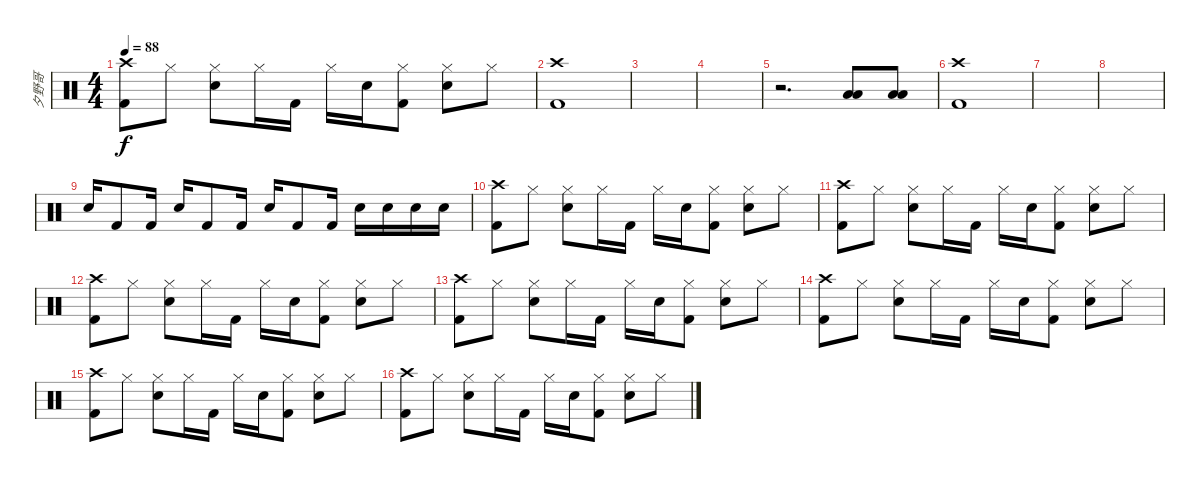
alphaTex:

\track ("夕野哥" "夕野哥") {instrument percussion}
\staff {score}
\articulation defaults
\ts (4 4)
\tempo 88
\clef neutral
\ks c
("Crash high (hit)" "Kick (hit) 2").8{dy f} "Hi-Hat (closed)".8 ("Hi-Hat (closed)" "Electric Snare (hit)").8 "Hi-Hat (closed)".16 "Kick (hit) 2".16 "Hi-Hat (closed)".16 "Electric Snare (hit)".16 ("Hi-Hat (closed)" "Kick (hit) 2").8 ("Hi-Hat (closed)" "Electric Snare (hit)").8 "Hi-Hat (closed)".8 |
("Crash high (hit)" "Kick (hit) 2").1 |
|
|
r.2{d} ("Low Tom (hit)" "Low Floor Tom (hit)").8 ("Low Tom (hit)" "Low Floor Tom (hit)").8 |
("Crash high (hit)" "Kick (hit) 2").1 |
|
|
"Electric Snare (hit)".16 "Kick (hit) 2".8 "Kick (hit) 2".16 "Electric Snare (hit)".16 "Kick (hit) 2".8 "Kick (hit) 2".16 "Electric Snare (hit)".16 "Kick (hit) 2".8 "Kick (hit) 2".16 "Electric Snare (hit)".16 "Electric Snare (hit)".16 "Electric Snare (hit)".16 "Electric Snare (hit)".16 |
("Crash high (hit)" "Kick (hit) 2").8 "Hi-Hat (closed)".8 ("Hi-Hat (closed)" "Electric Snare (hit)").8 "Hi-Hat (closed)".16 "Kick (hit) 2".16 "Hi-Hat (closed)".16 "Electric Snare (hit)".16 ("Hi-Hat (closed)" "Kick (hit) 2").8 ("Hi-Hat (closed)" "Electric Snare (hit)").8 "Hi-Hat (closed)".8 |
("Crash high (hit)" "Kick (hit) 2").8 "Hi-Hat (closed)".8 ("Hi-Hat (closed)" "Electric Snare (hit)").8 "Hi-Hat (closed)".16 "Kick (hit) 2".16 "Hi-Hat (closed)".16 "Electric Snare (hit)".16 ("Hi-Hat (closed)" "Kick (hit) 2").8 ("Hi-Hat (closed)" "Electric Snare (hit)").8 "Hi-Hat (closed)".8 |
("Crash high (hit)" "Kick (hit) 2").8 "Hi-Hat (closed)".8 ("Hi-Hat (closed)" "Electric Snare (hit)").8 "Hi-Hat (closed)".16 "Kick (hit) 2".16 "Hi-Hat (closed)".16 "Electric Snare (hit)".16 ("Hi-Hat (closed)" "Kick (hit) 2").8 ("Hi-Hat (closed)" "Electric Snare (hit)").8 "Hi-Hat (closed)".8 |
("Crash high (hit)" "Kick (hit) 2").8 "Hi-Hat (closed)".8 ("Hi-Hat (closed)" "Electric Snare (hit)").8 "Hi-Hat (closed)".16 "Kick (hit) 2".16 "Hi-Hat (closed)".16 "Electric Snare (hit)".16 ("Hi-Hat (closed)" "Kick (hit) 2").8 ("Hi-Hat (closed)" "Electric Snare (hit)").8 "Hi-Hat (closed)".8 |
("Crash high (hit)" "Kick (hit) 2").8 "Hi-Hat (closed)".8 ("Hi-Hat (closed)" "Electric Snare (hit)").8 "Hi-Hat (closed)".16 "Kick (hit) 2".16 "Hi-Hat (closed)".16 "Electric Snare (hit)".16 ("Hi-Hat (closed)" "Kick (hit) 2").8 ("Hi-Hat (closed)" "Electric Snare (hit)").8 "Hi-Hat (closed)".8 |
("Crash high (hit)" "Kick (hit) 2").8 "Hi-Hat (closed)".8 ("Hi-Hat (closed)" "Electric Snare (hit)").8 "Hi-Hat (closed)".16 "Kick (hit) 2".16 "Hi-Hat (closed)".16 "Electric Snare (hit)".16 ("Hi-Hat (closed)" "Kick (hit) 2").8 ("Hi-Hat (closed)" "Electric Snare (hit)").8 "Hi-Hat (closed)".8 |
("Crash high (hit)" "Kick (hit) 2").8 "Hi-Hat (closed)".8 ("Hi-Hat (closed)" "Electric Snare (hit)").8 "Hi-Hat (closed)".16 "Kick (hit) 2".16 "Hi-Hat (closed)".16 "Electric Snare (hit)".16 ("Hi-Hat (closed)" "Kick (hit) 2").8 ("Hi-Hat (closed)" "Electric Snare (hit)").8 "Hi-Hat (closed)".8
